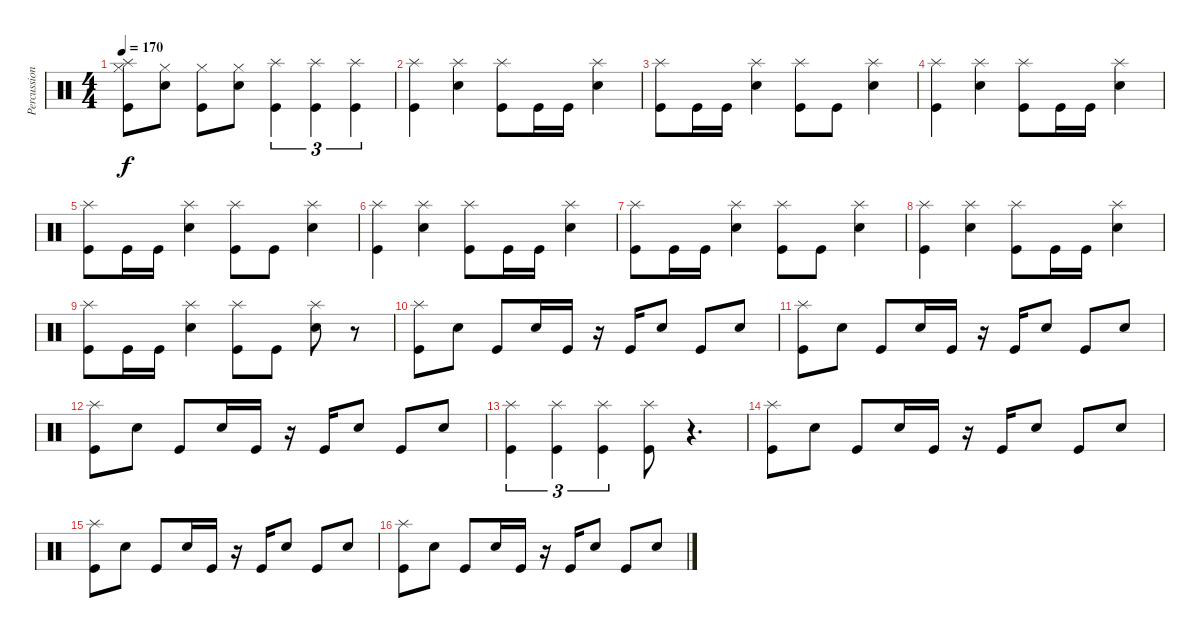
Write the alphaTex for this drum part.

\track ("Percussion" "Percussion") {instrument percussion}
\staff {score}
\articulation defaults
\ts (4 4)
\tempo 170
\clef neutral
\ks c
("Splash (hit)" "Hi-Hat (closed)" "Kick (hit)").8{dy f} ("Hi-Hat (closed)" "Electric Snare (hit)").8 ("Hi-Hat (closed)" "Kick (hit)").8 ("Hi-Hat (closed)" "Electric Snare (hit)").8 ("Splash (hit)" "Kick (hit)").4{tu (3 2)} ("Splash (hit)" "Kick (hit)").4{tu (3 2)} ("Splash (hit)" "Kick (hit)").4{tu (3 2)} |
("Splash (hit)" "Kick (hit)").4 ("Splash (hit)" "Electric Snare (hit)").4 ("Splash (hit)" "Kick (hit)").8 "Kick (hit)".16 "Kick (hit)".16 ("Splash (hit)" "Electric Snare (hit)").4 |
("Splash (hit)" "Kick (hit)").8 "Kick (hit)".16 "Kick (hit)".16 ("Splash (hit)" "Electric Snare (hit)").4 ("Splash (hit)" "Kick (hit)").8 "Kick (hit)".8 ("Splash (hit)" "Electric Snare (hit)").4 |
("Splash (hit)" "Kick (hit)").4 ("Splash (hit)" "Electric Snare (hit)").4 ("Splash (hit)" "Kick (hit)").8 "Kick (hit)".16 "Kick (hit)".16 ("Splash (hit)" "Electric Snare (hit)").4 |
("Splash (hit)" "Kick (hit)").8 "Kick (hit)".16 "Kick (hit)".16 ("Splash (hit)" "Electric Snare (hit)").4 ("Splash (hit)" "Kick (hit)").8 "Kick (hit)".8 ("Splash (hit)" "Electric Snare (hit)").4 |
("Splash (hit)" "Kick (hit)").4 ("Splash (hit)" "Electric Snare (hit)").4 ("Splash (hit)" "Kick (hit)").8 "Kick (hit)".16 "Kick (hit)".16 ("Splash (hit)" "Electric Snare (hit)").4 |
("Splash (hit)" "Kick (hit)").8 "Kick (hit)".16 "Kick (hit)".16 ("Splash (hit)" "Electric Snare (hit)").4 ("Splash (hit)" "Kick (hit)").8 "Kick (hit)".8 ("Splash (hit)" "Electric Snare (hit)").4 |
("Splash (hit)" "Kick (hit)").4 ("Splash (hit)" "Electric Snare (hit)").4 ("Splash (hit)" "Kick (hit)").8 "Kick (hit)".16 "Kick (hit)".16 ("Splash (hit)" "Electric Snare (hit)").4 |
("Splash (hit)" "Kick (hit)").8 "Kick (hit)".16 "Kick (hit)".16 ("Splash (hit)" "Electric Snare (hit)").4 ("Splash (hit)" "Kick (hit)").8 "Kick (hit)".8 ("Splash (hit)" "Electric Snare (hit)").8 r.8 |
("Splash (hit)" "Kick (hit)").8 "Electric Snare (hit)".8 "Kick (hit)".8 "Electric Snare (hit)".16 "Kick (hit)".16 r.16 "Kick (hit)".16 "Electric Snare (hit)".8 "Kick (hit)".8 "Electric Snare (hit)".8 |
("Splash (hit)" "Kick (hit)").8 "Electric Snare (hit)".8 "Kick (hit)".8 "Electric Snare (hit)".16 "Kick (hit)".16 r.16 "Kick (hit)".16 "Electric Snare (hit)".8 "Kick (hit)".8 "Electric Snare (hit)".8 |
("Splash (hit)" "Kick (hit)").8 "Electric Snare (hit)".8 "Kick (hit)".8 "Electric Snare (hit)".16 "Kick (hit)".16 r.16 "Kick (hit)".16 "Electric Snare (hit)".8 "Kick (hit)".8 "Electric Snare (hit)".8 |
("Splash (hit)" "Kick (hit)").4{tu (3 2)} ("Splash (hit)" "Kick (hit)").4{tu (3 2)} ("Splash (hit)" "Kick (hit)").4{tu (3 2)} ("Splash (hit)" "Kick (hit)").8 r.4{d} |
("Splash (hit)" "Kick (hit)").8 "Electric Snare (hit)".8 "Kick (hit)".8 "Electric Snare (hit)".16 "Kick (hit)".16 r.16 "Kick (hit)".16 "Electric Snare (hit)".8 "Kick (hit)".8 "Electric Snare (hit)".8 |
("Splash (hit)" "Kick (hit)").8 "Electric Snare (hit)".8 "Kick (hit)".8 "Electric Snare (hit)".16 "Kick (hit)".16 r.16 "Kick (hit)".16 "Electric Snare (hit)".8 "Kick (hit)".8 "Electric Snare (hit)".8 |
("Splash (hit)" "Kick (hit)").8 "Electric Snare (hit)".8 "Kick (hit)".8 "Electric Snare (hit)".16 "Kick (hit)".16 r.16 "Kick (hit)".16 "Electric Snare (hit)".8 "Kick (hit)".8 "Electric Snare (hit)".8
